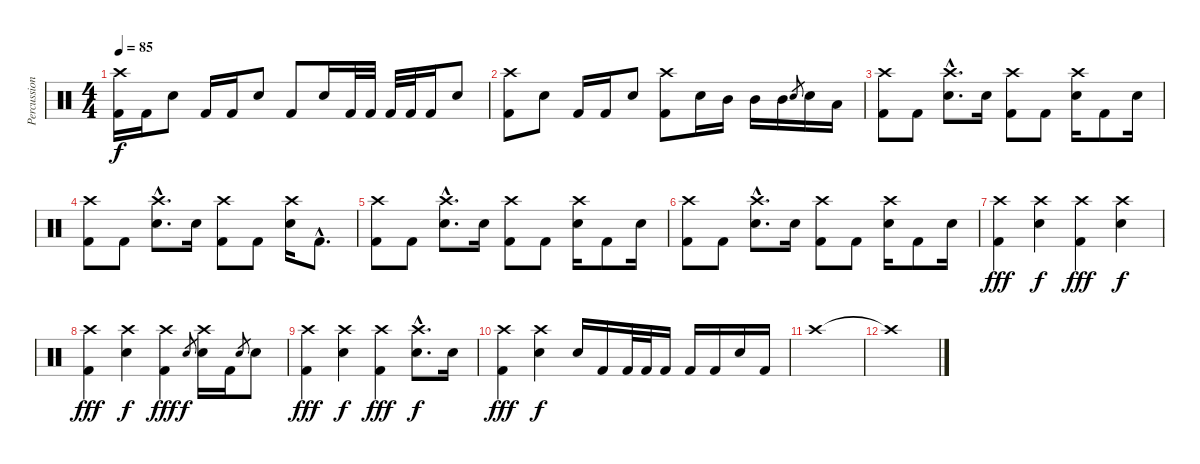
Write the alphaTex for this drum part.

\track ("Percussion" "Percussion") {instrument percussion}
\staff {score}
\articulation defaults
\ts (4 4)
\tempo 85
\clef neutral
\ks c
("Crash high (hit)" "Kick (hit) 2").16{dy f} "Kick (hit) 2".16 "Electric Snare (hit)".8 "Kick (hit) 2".16 "Kick (hit) 2".16 "Electric Snare (hit)".8 "Kick (hit) 2".8 "Electric Snare (hit)".16 "Kick (hit) 2".32 "Kick (hit) 2".32 "Kick (hit) 2".32 "Kick (hit) 2".32 "Kick (hit) 2".16 "Electric Snare (hit)".8 |
("Crash high (hit)" "Kick (hit) 2").8 "Electric Snare (hit)".8 "Kick (hit) 2".16 "Kick (hit) 2".16 "Electric Snare (hit)".8 ("Crash high (hit)" "Kick (hit) 2").8 "Electric Snare (hit)".16 "Mid Tom (hit)".16 "Mid Tom (hit)".16 "Mid Tom (hit)".16 "Electric Snare (hit)".8{gr} "Electric Snare (hit)".16 "Low Tom (hit)".16 |
("Crash high (hit)" "Kick (hit) 2").8 "Kick (hit) 2".8 ("Crash high (hit)"{hac} "Electric Snare (hit)"{hac}).8{d} "Electric Snare (hit)".16 ("Crash high (hit)" "Kick (hit) 2").8 "Kick (hit) 2".8 ("Crash high (hit)" "Electric Snare (hit)").16 "Kick (hit) 2".8 "Electric Snare (hit)".16 |
("Crash high (hit)" "Kick (hit) 2").8 "Kick (hit) 2".8 ("Crash high (hit)"{hac} "Electric Snare (hit)"{hac}).8{d} "Electric Snare (hit)".16 ("Crash high (hit)" "Kick (hit) 2").8 "Kick (hit) 2".8 ("Crash high (hit)" "Electric Snare (hit)").16 "Kick (hit) 2"{hac}.8{d} |
("Crash high (hit)" "Kick (hit) 2").8 "Kick (hit) 2".8 ("Crash high (hit)"{hac} "Electric Snare (hit)"{hac}).8{d} "Electric Snare (hit)".16 ("Crash high (hit)" "Kick (hit) 2").8 "Kick (hit) 2".8 ("Crash high (hit)" "Electric Snare (hit)").16 "Kick (hit) 2".8 "Electric Snare (hit)".16 |
("Crash high (hit)" "Kick (hit) 2").8 "Kick (hit) 2".8 ("Crash high (hit)"{hac} "Electric Snare (hit)"{hac}).8{d} "Electric Snare (hit)".16 ("Crash high (hit)" "Kick (hit) 2").8 "Kick (hit) 2".8 ("Crash high (hit)" "Electric Snare (hit)").16 "Kick (hit) 2".8 "Electric Snare (hit)".16 |
("Crash high (hit)" "Kick (hit) 2").4{dy fff} ("Crash high (hit)" "Electric Snare (hit)").4{dy f} ("Crash high (hit)" "Kick (hit) 2").4{dy fff} ("Crash high (hit)" "Electric Snare (hit)").4{dy f} |
("Crash high (hit)" "Kick (hit) 2").4{dy fff} ("Crash high (hit)" "Electric Snare (hit)").4{dy f} ("Crash high (hit)" "Kick (hit) 2").4{dy fff} "Electric Snare (hit)".8{gr dy f} ("Crash high (hit)" "Electric Snare (hit)").16 "Kick (hit) 2".16 "Electric Snare (hit)".8{gr} "Electric Snare (hit)".8 |
("Crash high (hit)" "Kick (hit) 2").4{dy fff} ("Crash high (hit)" "Electric Snare (hit)").4{dy f} ("Crash high (hit)" "Kick (hit) 2").4{dy fff} ("Crash high (hit)"{hac} "Electric Snare (hit)"{hac}).8{d dy f} "Electric Snare (hit)".16 |
("Crash high (hit)" "Kick (hit) 2").4{dy fff} ("Crash high (hit)" "Electric Snare (hit)").4{dy f} "Electric Snare (hit)".16 "Kick (hit) 2".16 "Kick (hit) 2".32 "Kick (hit) 2".32 "Kick (hit) 2".16 "Kick (hit) 2".16 "Kick (hit) 2".16 "Electric Snare (hit)".16 "Kick (hit) 2".16 |
"Crash high (hit)".1{volume 3} |
"Crash high (hit)"{t}.1
